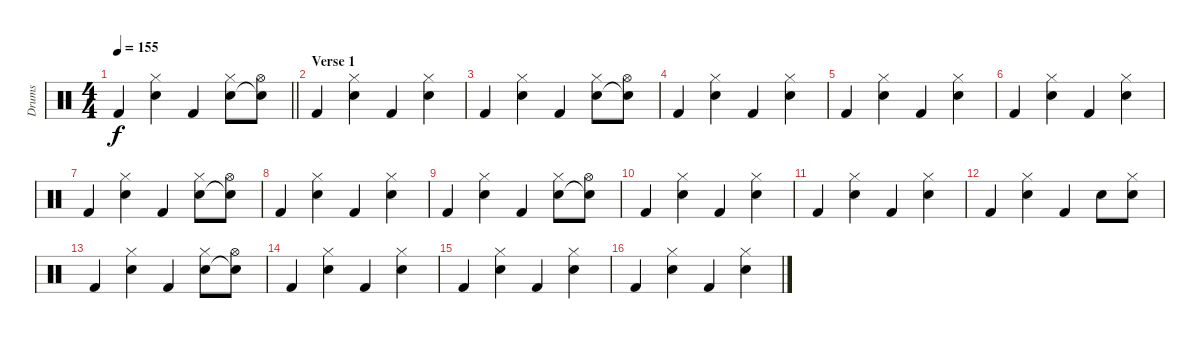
\track ("Drums" "Drums") {instrument percussion}
\staff {score}
\articulation defaults
\ts (4 4)
\tempo 155
\clef neutral
\barLineRight lightlight
\ks c "Kick (hit) 2".4{dy f}
("Electric Snare (hit)" "Hi-Hat (closed)").4 "Kick (hit) 2".4 ("Electric Snare (hit)" "Hi-Hat (closed)").8 ("Snare (hit)"{t} "Hi-Hat (open)").8 |
\section ("" "Verse 1")
"Kick (hit) 2".4 ("Electric Snare (hit)" "Hi-Hat (closed)").4 "Kick (hit) 2".4 ("Electric Snare (hit)" "Hi-Hat (closed)").4 |
"Kick (hit) 2".4 ("Electric Snare (hit)" "Hi-Hat (closed)").4 "Kick (hit) 2".4 ("Electric Snare (hit)" "Hi-Hat (closed)").8 ("Snare (hit)"{t} "Hi-Hat (open)").8 |
"Kick (hit) 2".4 ("Electric Snare (hit)" "Hi-Hat (closed)").4 "Kick (hit) 2".4 ("Electric Snare (hit)" "Hi-Hat (closed)").4 |
"Kick (hit) 2".4 ("Electric Snare (hit)" "Hi-Hat (closed)").4 "Kick (hit) 2".4 ("Electric Snare (hit)" "Hi-Hat (closed)").4 |
"Kick (hit) 2".4 ("Electric Snare (hit)" "Hi-Hat (closed)").4 "Kick (hit) 2".4 ("Electric Snare (hit)" "Hi-Hat (closed)").4 |
"Kick (hit) 2".4 ("Electric Snare (hit)" "Hi-Hat (closed)").4 "Kick (hit) 2".4 ("Electric Snare (hit)" "Hi-Hat (closed)").8 ("Snare (hit)"{t} "Hi-Hat (open)").8 |
"Kick (hit) 2".4 ("Electric Snare (hit)" "Hi-Hat (closed)").4 "Kick (hit) 2".4 ("Electric Snare (hit)" "Hi-Hat (closed)").4 |
"Kick (hit) 2".4 ("Electric Snare (hit)" "Hi-Hat (closed)").4 "Kick (hit) 2".4 ("Electric Snare (hit)" "Hi-Hat (closed)").8 ("Snare (hit)"{t} "Hi-Hat (open)").8 |
"Kick (hit) 2".4 ("Electric Snare (hit)" "Hi-Hat (closed)").4 "Kick (hit) 2".4 ("Electric Snare (hit)" "Hi-Hat (closed)").4 |
"Kick (hit) 2".4 ("Electric Snare (hit)" "Hi-Hat (closed)").4 "Kick (hit) 2".4 ("Electric Snare (hit)" "Hi-Hat (closed)").4 |
"Kick (hit) 2".4 ("Electric Snare (hit)" "Hi-Hat (closed)").4 "Kick (hit) 2".4 "Electric Snare (hit)".8 ("Electric Snare (hit)" "Hi-Hat (closed)").8 |
"Kick (hit) 2".4 ("Electric Snare (hit)" "Hi-Hat (closed)").4 "Kick (hit) 2".4 ("Electric Snare (hit)" "Hi-Hat (closed)").8 ("Snare (hit)"{t} "Hi-Hat (open)").8 |
"Kick (hit) 2".4 ("Electric Snare (hit)" "Hi-Hat (closed)").4 "Kick (hit) 2".4 ("Electric Snare (hit)" "Hi-Hat (closed)").4 |
"Kick (hit) 2".4 ("Electric Snare (hit)" "Hi-Hat (closed)").4 "Kick (hit) 2".4 ("Electric Snare (hit)" "Hi-Hat (closed)").4 |
"Kick (hit) 2".4 ("Electric Snare (hit)" "Hi-Hat (closed)").4 "Kick (hit) 2".4 ("Electric Snare (hit)" "Hi-Hat (closed)").4
